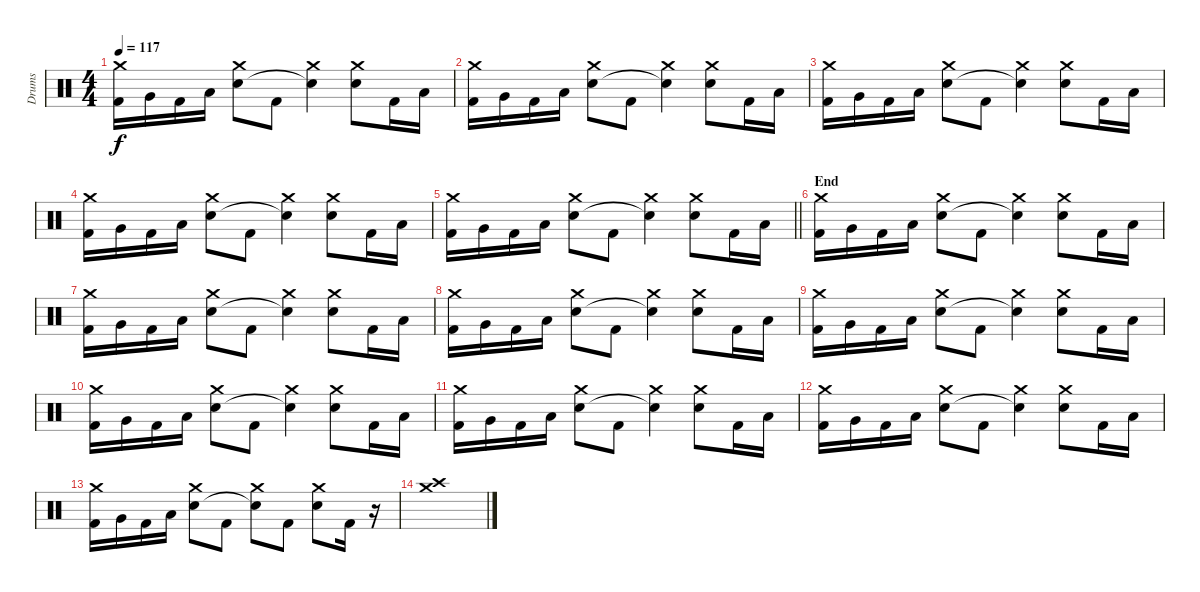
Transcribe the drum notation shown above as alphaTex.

\track ("Drums" "Drums") {instrument percussion}
\staff {score}
\articulation defaults
\ts (4 4)
\tempo 117
\clef neutral
\ks c
("Crash medium (hit)" "Kick (hit) 2").16{dy f} "Very Low Tom (hit)".16 "Kick (hit) 2".16 "Low Floor Tom (hit)".16 ("Crash medium (hit)" "Snare (hit) 2").8 "Kick (hit) 2".8 ("Crash medium (hit)" "Snare (hit)"{t}).4 ("Crash medium (hit)" "Snare (hit) 2").8 "Kick (hit) 2".16 "Low Tom (hit)".16 |
("Crash medium (hit)" "Kick (hit) 2").16 "Very Low Tom (hit)".16 "Kick (hit) 2".16 "Low Floor Tom (hit)".16 ("Crash medium (hit)" "Snare (hit) 2").8 "Kick (hit) 2".8 ("Crash medium (hit)" "Snare (hit)"{t}).4 ("Crash medium (hit)" "Snare (hit) 2").8 "Kick (hit) 2".16 "Low Tom (hit)".16 |
("Crash medium (hit)" "Kick (hit) 2").16 "Very Low Tom (hit)".16 "Kick (hit) 2".16 "Low Floor Tom (hit)".16 ("Crash medium (hit)" "Snare (hit) 2").8 "Kick (hit) 2".8 ("Crash medium (hit)" "Snare (hit)"{t}).4 ("Crash medium (hit)" "Snare (hit) 2").8 "Kick (hit) 2".16 "Low Tom (hit)".16 |
("Crash medium (hit)" "Kick (hit) 2").16 "Very Low Tom (hit)".16 "Kick (hit) 2".16 "Low Floor Tom (hit)".16 ("Crash medium (hit)" "Snare (hit) 2").8 "Kick (hit) 2".8 ("Crash medium (hit)" "Snare (hit)"{t}).4 ("Crash medium (hit)" "Snare (hit) 2").8 "Kick (hit) 2".16 "Low Tom (hit)".16 |
\barLineRight lightlight
("Crash medium (hit)" "Kick (hit) 2").16 "Very Low Tom (hit)".16 "Kick (hit) 2".16 "Low Floor Tom (hit)".16 ("Crash medium (hit)" "Snare (hit) 2").8 "Kick (hit) 2".8 ("Crash medium (hit)" "Snare (hit)"{t}).4 ("Crash medium (hit)" "Snare (hit) 2").8 "Kick (hit) 2".16 "Low Tom (hit)".16 |
\section ("" "End")
("Crash medium (hit)" "Kick (hit) 2").16 "Very Low Tom (hit)".16 "Kick (hit) 2".16 "Low Floor Tom (hit)".16 ("Crash medium (hit)" "Snare (hit) 2").8 "Kick (hit) 2".8 ("Crash medium (hit)" "Snare (hit)"{t}).4 ("Crash medium (hit)" "Snare (hit) 2").8 "Kick (hit) 2".16 "Low Tom (hit)".16 |
("Crash medium (hit)" "Kick (hit) 2").16 "Very Low Tom (hit)".16 "Kick (hit) 2".16 "Low Floor Tom (hit)".16 ("Crash medium (hit)" "Snare (hit) 2").8 "Kick (hit) 2".8 ("Crash medium (hit)" "Snare (hit)"{t}).4 ("Crash medium (hit)" "Snare (hit) 2").8 "Kick (hit) 2".16 "Low Tom (hit)".16 |
("Crash medium (hit)" "Kick (hit) 2").16 "Very Low Tom (hit)".16 "Kick (hit) 2".16 "Low Floor Tom (hit)".16 ("Crash medium (hit)" "Snare (hit) 2").8 "Kick (hit) 2".8 ("Crash medium (hit)" "Snare (hit)"{t}).4 ("Crash medium (hit)" "Snare (hit) 2").8 "Kick (hit) 2".16 "Low Tom (hit)".16 |
("Crash medium (hit)" "Kick (hit) 2").16 "Very Low Tom (hit)".16 "Kick (hit) 2".16 "Low Floor Tom (hit)".16 ("Crash medium (hit)" "Snare (hit) 2").8 "Kick (hit) 2".8 ("Crash medium (hit)" "Snare (hit)"{t}).4 ("Crash medium (hit)" "Snare (hit) 2").8 "Kick (hit) 2".16 "Low Tom (hit)".16 |
("Crash medium (hit)" "Kick (hit) 2").16 "Very Low Tom (hit)".16 "Kick (hit) 2".16 "Low Floor Tom (hit)".16 ("Crash medium (hit)" "Snare (hit) 2").8 "Kick (hit) 2".8 ("Crash medium (hit)" "Snare (hit)"{t}).4 ("Crash medium (hit)" "Snare (hit) 2").8 "Kick (hit) 2".16 "Low Tom (hit)".16 |
("Crash medium (hit)" "Kick (hit) 2").16 "Very Low Tom (hit)".16 "Kick (hit) 2".16 "Low Floor Tom (hit)".16 ("Crash medium (hit)" "Snare (hit) 2").8 "Kick (hit) 2".8 ("Crash medium (hit)" "Snare (hit)"{t}).4 ("Crash medium (hit)" "Snare (hit) 2").8 "Kick (hit) 2".16 "Low Tom (hit)".16 |
("Crash medium (hit)" "Kick (hit) 2").16 "Very Low Tom (hit)".16 "Kick (hit) 2".16 "Low Floor Tom (hit)".16 ("Crash medium (hit)" "Snare (hit) 2").8 "Kick (hit) 2".8 ("Crash medium (hit)" "Snare (hit)"{t}).4 ("Crash medium (hit)" "Snare (hit) 2").8 "Kick (hit) 2".16 "Low Tom (hit)".16 |
("Crash medium (hit)" "Kick (hit) 2").16 "Very Low Tom (hit)".16 "Kick (hit) 2".16 "Low Floor Tom (hit)".16 ("Crash medium (hit)" "Snare (hit) 2").8 "Kick (hit) 2".8 ("Crash medium (hit)" "Snare (hit)"{t}).8 "Kick (hit) 2".8 ("Crash medium (hit)" "Snare (hit) 2").8 "Kick (hit) 2".16 r.16 |
("Crash medium (hit)" "Crash high (hit)").1
